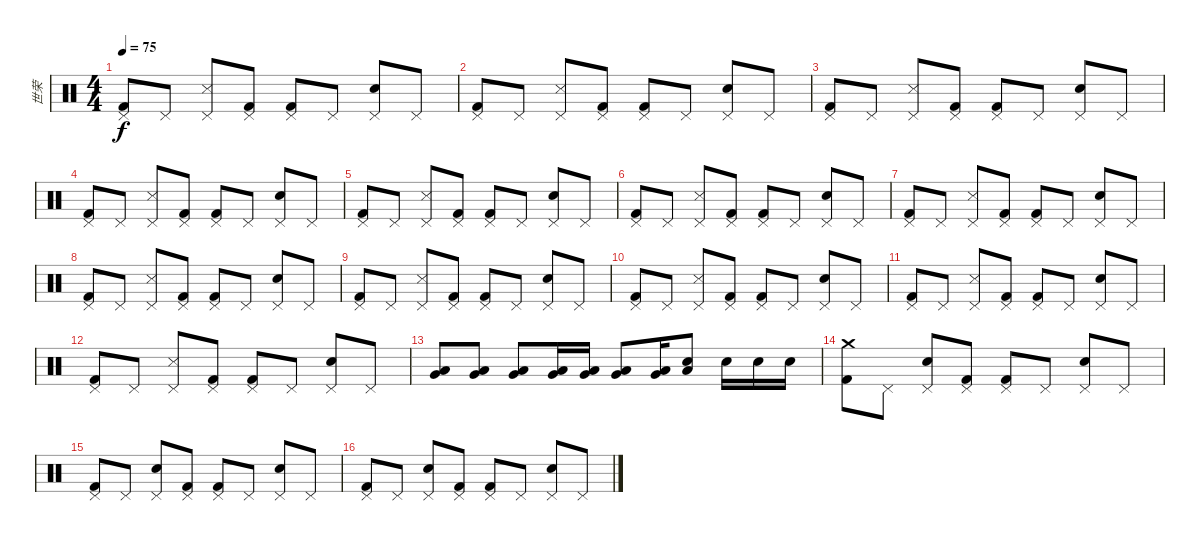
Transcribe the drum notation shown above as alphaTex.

\track ("世荣" "世荣") {instrument percussion}
\staff {score}
\articulation defaults
\ts (4 4)
\tempo 75
\clef neutral
\ks c
("Pedal Hi-Hat (hit)" "Kick (hit) 2").8{dy f} "Pedal Hi-Hat (hit)".8 ("Pedal Hi-Hat (hit)" "Snare (side stick) 3").8 ("Pedal Hi-Hat (hit)" "Kick (hit) 2").8 ("Pedal Hi-Hat (hit)" "Kick (hit) 2").8 "Pedal Hi-Hat (hit)".8 ("Pedal Hi-Hat (hit)" "Electric Snare (hit)").8 "Pedal Hi-Hat (hit)".8 |
("Pedal Hi-Hat (hit)" "Kick (hit) 2").8 "Pedal Hi-Hat (hit)".8 ("Pedal Hi-Hat (hit)" "Snare (side stick) 3").8 ("Pedal Hi-Hat (hit)" "Kick (hit) 2").8 ("Pedal Hi-Hat (hit)" "Kick (hit) 2").8 "Pedal Hi-Hat (hit)".8 ("Pedal Hi-Hat (hit)" "Electric Snare (hit)").8 "Pedal Hi-Hat (hit)".8 |
("Pedal Hi-Hat (hit)" "Kick (hit) 2").8 "Pedal Hi-Hat (hit)".8 ("Pedal Hi-Hat (hit)" "Snare (side stick) 3").8 ("Pedal Hi-Hat (hit)" "Kick (hit) 2").8 ("Pedal Hi-Hat (hit)" "Kick (hit) 2").8 "Pedal Hi-Hat (hit)".8 ("Pedal Hi-Hat (hit)" "Electric Snare (hit)").8 "Pedal Hi-Hat (hit)".8 |
("Pedal Hi-Hat (hit)" "Kick (hit) 2").8 "Pedal Hi-Hat (hit)".8 ("Pedal Hi-Hat (hit)" "Snare (side stick) 3").8 ("Pedal Hi-Hat (hit)" "Kick (hit) 2").8 ("Pedal Hi-Hat (hit)" "Kick (hit) 2").8 "Pedal Hi-Hat (hit)".8 ("Pedal Hi-Hat (hit)" "Electric Snare (hit)").8 "Pedal Hi-Hat (hit)".8 |
("Pedal Hi-Hat (hit)" "Kick (hit) 2").8 "Pedal Hi-Hat (hit)".8 ("Pedal Hi-Hat (hit)" "Snare (side stick) 3").8 ("Pedal Hi-Hat (hit)" "Kick (hit) 2").8 ("Pedal Hi-Hat (hit)" "Kick (hit) 2").8 "Pedal Hi-Hat (hit)".8 ("Pedal Hi-Hat (hit)" "Electric Snare (hit)").8 "Pedal Hi-Hat (hit)".8 |
("Pedal Hi-Hat (hit)" "Kick (hit) 2").8 "Pedal Hi-Hat (hit)".8 ("Pedal Hi-Hat (hit)" "Snare (side stick) 3").8 ("Pedal Hi-Hat (hit)" "Kick (hit) 2").8 ("Pedal Hi-Hat (hit)" "Kick (hit) 2").8 "Pedal Hi-Hat (hit)".8 ("Pedal Hi-Hat (hit)" "Electric Snare (hit)").8 "Pedal Hi-Hat (hit)".8 |
("Pedal Hi-Hat (hit)" "Kick (hit) 2").8 "Pedal Hi-Hat (hit)".8 ("Pedal Hi-Hat (hit)" "Snare (side stick) 3").8 ("Pedal Hi-Hat (hit)" "Kick (hit) 2").8 ("Pedal Hi-Hat (hit)" "Kick (hit) 2").8 "Pedal Hi-Hat (hit)".8 ("Pedal Hi-Hat (hit)" "Electric Snare (hit)").8 "Pedal Hi-Hat (hit)".8 |
("Pedal Hi-Hat (hit)" "Kick (hit) 2").8 "Pedal Hi-Hat (hit)".8 ("Pedal Hi-Hat (hit)" "Snare (side stick) 3").8 ("Pedal Hi-Hat (hit)" "Kick (hit) 2").8 ("Pedal Hi-Hat (hit)" "Kick (hit) 2").8 "Pedal Hi-Hat (hit)".8 ("Pedal Hi-Hat (hit)" "Electric Snare (hit)").8 "Pedal Hi-Hat (hit)".8 |
("Pedal Hi-Hat (hit)" "Kick (hit) 2").8 "Pedal Hi-Hat (hit)".8 ("Pedal Hi-Hat (hit)" "Snare (side stick) 3").8 ("Pedal Hi-Hat (hit)" "Kick (hit) 2").8 ("Pedal Hi-Hat (hit)" "Kick (hit) 2").8 "Pedal Hi-Hat (hit)".8 ("Pedal Hi-Hat (hit)" "Electric Snare (hit)").8 "Pedal Hi-Hat (hit)".8 |
("Pedal Hi-Hat (hit)" "Kick (hit) 2").8 "Pedal Hi-Hat (hit)".8 ("Pedal Hi-Hat (hit)" "Snare (side stick) 3").8 ("Pedal Hi-Hat (hit)" "Kick (hit) 2").8 ("Pedal Hi-Hat (hit)" "Kick (hit) 2").8 "Pedal Hi-Hat (hit)".8 ("Pedal Hi-Hat (hit)" "Electric Snare (hit)").8 "Pedal Hi-Hat (hit)".8 |
("Pedal Hi-Hat (hit)" "Kick (hit) 2").8 "Pedal Hi-Hat (hit)".8 ("Pedal Hi-Hat (hit)" "Snare (side stick) 3").8 ("Pedal Hi-Hat (hit)" "Kick (hit) 2").8 ("Pedal Hi-Hat (hit)" "Kick (hit) 2").8 "Pedal Hi-Hat (hit)".8 ("Pedal Hi-Hat (hit)" "Electric Snare (hit)").8 "Pedal Hi-Hat (hit)".8 |
("Pedal Hi-Hat (hit)" "Kick (hit) 2").8 "Pedal Hi-Hat (hit)".8 ("Pedal Hi-Hat (hit)" "Snare (side stick) 3").8 ("Pedal Hi-Hat (hit)" "Kick (hit) 2").8 ("Pedal Hi-Hat (hit)" "Kick (hit) 2").8 "Pedal Hi-Hat (hit)".8 ("Pedal Hi-Hat (hit)" "Electric Snare (hit)").8 "Pedal Hi-Hat (hit)".8 |
("Low Floor Tom (hit)" "Very Low Tom (hit)").8 ("Low Floor Tom (hit)" "Very Low Tom (hit)").8 ("Low Floor Tom (hit)" "Very Low Tom (hit)").8 ("Low Floor Tom (hit)" "Very Low Tom (hit)").16 ("Low Floor Tom (hit)" "Very Low Tom (hit)").16 ("Low Floor Tom (hit)" "Very Low Tom (hit)").8 ("Low Floor Tom (hit)" "Very Low Tom (hit)").16 ("Low Floor Tom (hit)" "Electric Snare (hit)").8 "Electric Snare (hit)".16 "Electric Snare (hit)".16 "Electric Snare (hit)".16 |
("Crash medium (hit)" "Kick (hit) 2").8 "Pedal Hi-Hat (hit)".8 ("Pedal Hi-Hat (hit)" "Electric Snare (hit)").8 ("Pedal Hi-Hat (hit)" "Kick (hit) 2").8 ("Pedal Hi-Hat (hit)" "Kick (hit) 2").8 "Pedal Hi-Hat (hit)".8 ("Pedal Hi-Hat (hit)" "Electric Snare (hit)").8 "Pedal Hi-Hat (hit)".8 |
("Pedal Hi-Hat (hit)" "Kick (hit) 2").8 "Pedal Hi-Hat (hit)".8 ("Pedal Hi-Hat (hit)" "Electric Snare (hit)").8 ("Pedal Hi-Hat (hit)" "Kick (hit) 2").8 ("Pedal Hi-Hat (hit)" "Kick (hit) 2").8 "Pedal Hi-Hat (hit)".8 ("Pedal Hi-Hat (hit)" "Electric Snare (hit)").8 "Pedal Hi-Hat (hit)".8 |
("Pedal Hi-Hat (hit)" "Kick (hit) 2").8 "Pedal Hi-Hat (hit)".8 ("Pedal Hi-Hat (hit)" "Electric Snare (hit)").8 ("Pedal Hi-Hat (hit)" "Kick (hit) 2").8 ("Pedal Hi-Hat (hit)" "Kick (hit) 2").8 "Pedal Hi-Hat (hit)".8 ("Pedal Hi-Hat (hit)" "Electric Snare (hit)").8 "Pedal Hi-Hat (hit)".8
